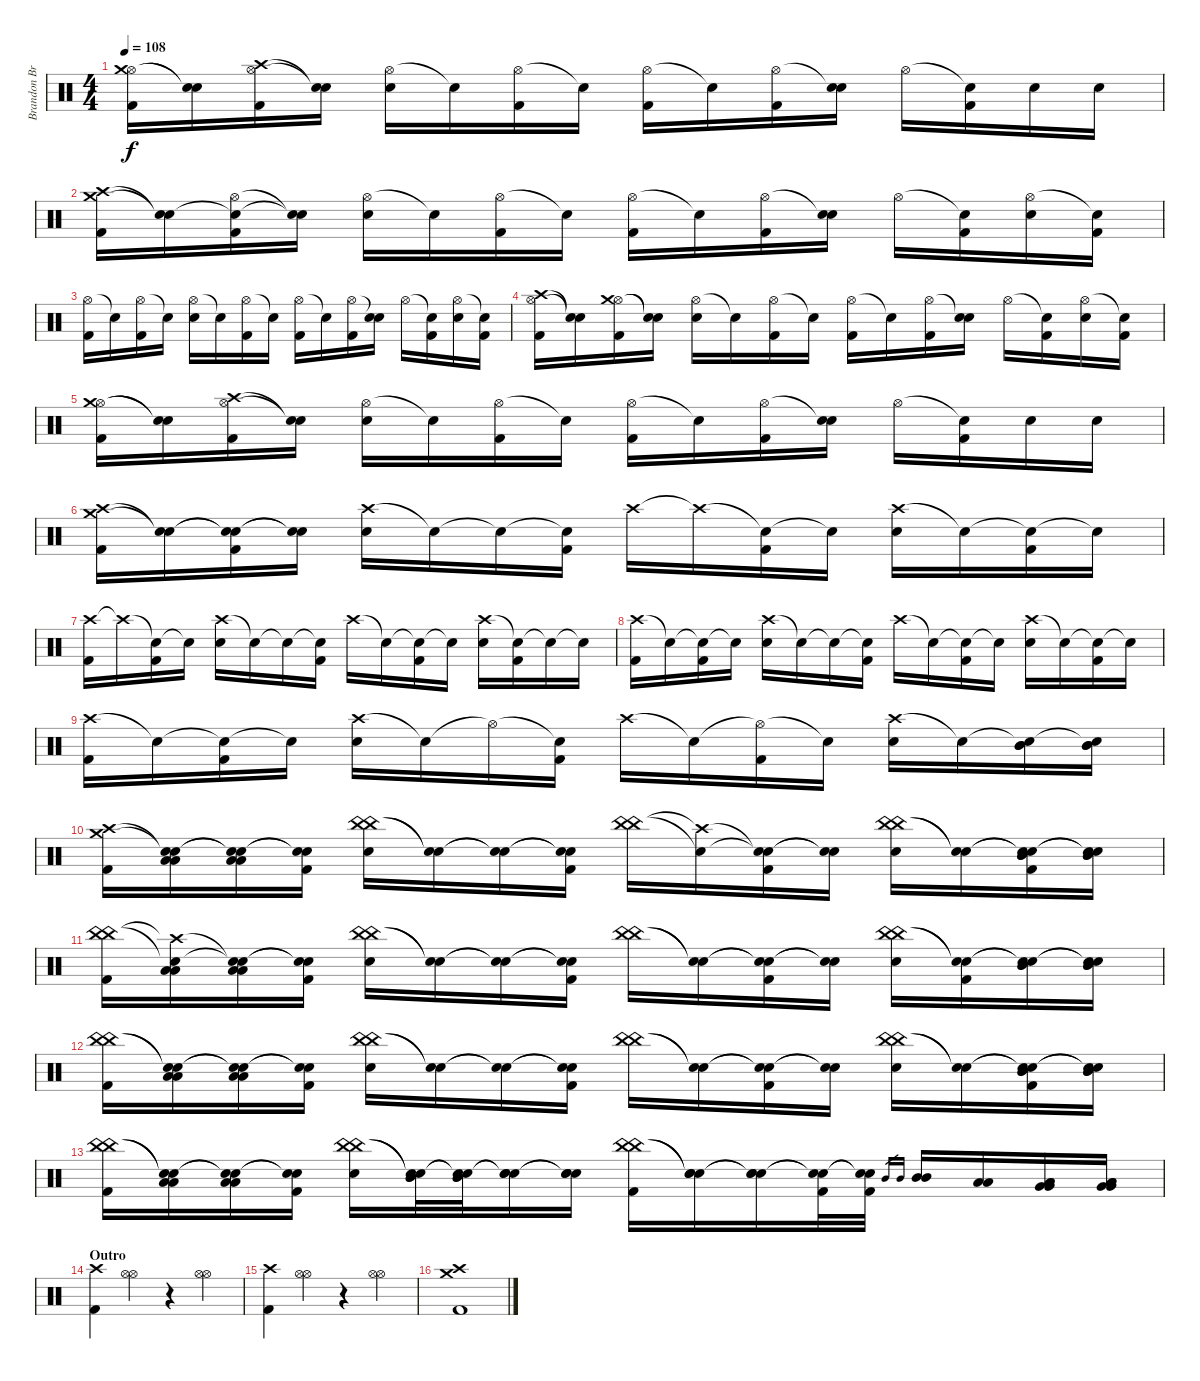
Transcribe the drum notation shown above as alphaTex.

\track ("Brandon Brown (Drums)" "Brandon Br") {instrument percussion}
\staff {score}
\articulation defaults
\ts (4 4)
\tempo 108
\clef neutral
\ks c
("Hi-Hat (open)" "Crash medium (hit)" "Kick (hit) 2").16{dy f} ("Snare (hit)"{t} "Snare (hit)"{t}).16 ("Hi-Hat (open)" "Crash high (hit)" "Kick (hit) 2").16 ("Snare (hit)"{t} "Snare (hit)"{t}).16 ("Hi-Hat (open)" "Electric Snare (hit)").16 "Snare (hit)"{t}.16 ("Hi-Hat (open)" "Kick (hit) 2").16 "Snare (hit)"{t}.16 ("Hi-Hat (open)" "Kick (hit) 2").16 "Snare (hit)"{t}.16 ("Hi-Hat (open)" "Kick (hit) 2").16 ("Snare (hit)"{t} "Electric Snare (hit)").16 "Hi-Hat (open)".16 ("Snare (hit)"{t} "Kick (hit) 2").16 "Electric Snare (hit)".16 "Electric Snare (hit)".16 |
("Crash medium (hit)" "Crash high (hit)" "Kick (hit) 2").16 ("Snare (hit)"{t} "Snare (hit)"{t}).16 ("Hi-Hat (open)" "Snare (hit)"{t} "Kick (hit) 2").16 ("Snare (hit)"{t} "Snare (hit)"{t}).16 ("Hi-Hat (open)" "Electric Snare (hit)").16 "Snare (hit)"{t}.16 ("Hi-Hat (open)" "Kick (hit) 2").16 "Snare (hit)"{t}.16 ("Hi-Hat (open)" "Kick (hit) 2").16 "Snare (hit)"{t}.16 ("Hi-Hat (open)" "Kick (hit) 2").16 ("Snare (hit)"{t} "Electric Snare (hit)").16 "Hi-Hat (open)".16 ("Snare (hit)"{t} "Kick (hit) 2").16 ("Hi-Hat (open)" "Electric Snare (hit)").16 ("Snare (hit)"{t} "Kick (hit) 2").16 |
("Hi-Hat (open)" "Kick (hit) 2").16 "Snare (hit)"{t}.16 ("Hi-Hat (open)" "Kick (hit) 2").16 "Snare (hit)"{t}.16 ("Hi-Hat (open)" "Electric Snare (hit)").16 "Snare (hit)"{t}.16 ("Hi-Hat (open)" "Kick (hit) 2").16 "Snare (hit)"{t}.16 ("Hi-Hat (open)" "Kick (hit) 2").16 "Snare (hit)"{t}.16 ("Hi-Hat (open)" "Kick (hit) 2").16 ("Snare (hit)"{t} "Electric Snare (hit)").16 "Hi-Hat (open)".16 ("Snare (hit)"{t} "Kick (hit) 2").16 ("Hi-Hat (open)" "Electric Snare (hit)").16 ("Snare (hit)"{t} "Kick (hit) 2").16 |
("Hi-Hat (open)" "Crash high (hit)" "Kick (hit) 2").16 ("Snare (hit)"{t} "Snare (hit)"{t}).16 ("Hi-Hat (open)" "Crash medium (hit)" "Kick (hit) 2").16 ("Snare (hit)"{t} "Snare (hit)"{t}).16 ("Hi-Hat (open)" "Electric Snare (hit)").16 "Snare (hit)"{t}.16 ("Hi-Hat (open)" "Kick (hit) 2").16 "Snare (hit)"{t}.16 ("Hi-Hat (open)" "Kick (hit) 2").16 "Snare (hit)"{t}.16 ("Hi-Hat (open)" "Kick (hit) 2").16 ("Snare (hit)"{t} "Electric Snare (hit)").16 "Hi-Hat (open)".16 ("Snare (hit)"{t} "Kick (hit) 2").16 ("Hi-Hat (open)" "Electric Snare (hit)").16 ("Snare (hit)"{t} "Kick (hit) 2").16 |
("Hi-Hat (open)" "Crash medium (hit)" "Kick (hit) 2").16 ("Snare (hit)"{t} "Snare (hit)"{t}).16 ("Hi-Hat (open)" "Crash high (hit)" "Kick (hit) 2").16 ("Snare (hit)"{t} "Snare (hit)"{t}).16 ("Hi-Hat (open)" "Electric Snare (hit)").16 "Snare (hit)"{t}.16 ("Hi-Hat (open)" "Kick (hit) 2").16 "Snare (hit)"{t}.16 ("Hi-Hat (open)" "Kick (hit) 2").16 "Snare (hit)"{t}.16 ("Hi-Hat (open)" "Kick (hit) 2").16 ("Snare (hit)"{t} "Electric Snare (hit)").16 "Hi-Hat (open)".16 ("Snare (hit)"{t} "Kick (hit) 2").16 "Electric Snare (hit)".16 "Electric Snare (hit)".16 |
("Crash medium (hit)" "Crash high (hit)" "Kick (hit) 2").16 ("Snare (hit)"{t} "Snare (hit)"{t}).16 ("Snare (hit)"{t} "Snare (hit)"{t} "Kick (hit) 2").16 ("Snare (hit)"{t} "Snare (hit)"{t}).16 ("Crash high (hit)" "Electric Snare (hit)").16 "Snare (hit)"{t}.16 "Snare (hit)"{t}.16 ("Snare (hit)"{t} "Kick (hit) 2").16 "Crash high (hit)".16 "Crash high (hit)"{t}.16 ("Snare (hit)"{t} "Kick (hit) 2").16 "Snare (hit)"{t}.16 ("Crash high (hit)" "Electric Snare (hit)").16 "Snare (hit)"{t}.16 ("Snare (hit)"{t} "Kick (hit) 2").16 "Snare (hit)"{t}.16 |
("Crash high (hit)" "Kick (hit) 2").16 "Crash high (hit)"{t}.16 ("Snare (hit)"{t} "Kick (hit) 2").16 "Snare (hit)"{t}.16 ("Crash high (hit)" "Electric Snare (hit)").16 "Snare (hit)"{t}.16 "Snare (hit)"{t}.16 ("Snare (hit)"{t} "Kick (hit) 2").16 "Crash high (hit)".16 "Snare (hit)"{t}.16 ("Snare (hit)"{t} "Kick (hit) 2").16 "Snare (hit)"{t}.16 ("Crash high (hit)" "Electric Snare (hit)").16 ("Snare (hit)"{t} "Kick (hit) 2").16 "Snare (hit)"{t}.16 "Snare (hit)"{t}.16 |
("Crash high (hit)" "Kick (hit) 2").16 "Snare (hit)"{t}.16 ("Snare (hit)"{t} "Kick (hit) 2").16 "Snare (hit)"{t}.16 ("Crash high (hit)" "Electric Snare (hit)").16 "Snare (hit)"{t}.16 "Snare (hit)"{t}.16 ("Snare (hit)"{t} "Kick (hit) 2").16 "Crash high (hit)".16 "Snare (hit)"{t}.16 ("Snare (hit)"{t} "Kick (hit) 2").16 "Snare (hit)"{t}.16 ("Crash high (hit)" "Electric Snare (hit)").16 "Snare (hit)"{t}.16 ("Snare (hit)"{t} "Kick (hit) 2").16 "Snare (hit)"{t}.16 |
("Crash high (hit)" "Kick (hit) 2").16 "Snare (hit)"{t}.16 ("Snare (hit)"{t} "Kick (hit) 2").16 "Snare (hit)"{t}.16 ("Crash high (hit)" "Electric Snare (hit)").16 "Snare (hit)"{t}.16 "Hi-Hat (open)"{t}.16 ("Snare (hit)"{t} "Kick (hit) 2").16 "Crash high (hit)".16 "Snare (hit)"{t}.16 ("Hi-Hat (open)"{t} "Kick (hit) 2").16 "Snare (hit)"{t}.16 ("Crash high (hit)" "Electric Snare (hit)").16 "Snare (hit)"{t}.16 ("Snare (hit)"{t} "Mid Tom (hit)" "Mid Tom (hit)").16 ("Snare (hit)"{t} "Mid Tom (hit)" "Mid Tom (hit)").16 |
("Crash medium (hit)" "Crash high (hit)" "Kick (hit) 2").16 ("Snare (hit)"{t} "Snare (hit)"{t} "Low Tom (hit)" "Low Tom (hit)").16 ("Snare (hit)"{t} "Snare (hit)"{t} "Low Tom (hit)" "Low Tom (hit)").16 ("Snare (hit)"{t} "Snare (hit)"{t} "Kick (hit) 2").16 ("China (hit)" "China (hit)" "Electric Snare (hit)").16 ("Snare (hit)"{t} "Snare (hit)"{t}).16 ("Snare (hit)"{t} "Snare (hit)"{t}).16 ("Snare (hit)"{t} "Snare (hit)"{t} "Kick (hit) 2").16 ("China (hit)" "China (hit)").16 ("Crash high (hit)"{t} "Snare (hit)"{t}).16 ("Snare (hit)"{t} "Snare (hit)"{t} "Kick (hit) 2").16 ("Snare (hit)"{t} "Snare (hit)"{t}).16 ("China (hit)" "China (hit)" "Electric Snare (hit)").16 ("Snare (hit)"{t} "Snare (hit)"{t}).16 ("Snare (hit)"{t} "Snare (hit)"{t} "Mid Tom (hit)" "Mid Tom (hit)" "Kick (hit) 2").16 ("Snare (hit)"{t} "Snare (hit)"{t} "Mid Tom (hit)" "Mid Tom (hit)").16 |
("China (hit)" "China (hit)" "Kick (hit) 2").16 ("Crash high (hit)"{t} "Snare (hit)"{t} "Low Tom (hit)" "Low Tom (hit)").16 ("Snare (hit)"{t} "Snare (hit)"{t} "Low Tom (hit)" "Low Tom (hit)").16 ("Snare (hit)"{t} "Snare (hit)"{t} "Kick (hit) 2").16 ("China (hit)" "China (hit)" "Electric Snare (hit)").16 ("Snare (hit)"{t} "Snare (hit)"{t}).16 ("Snare (hit)"{t} "Snare (hit)"{t}).16 ("Snare (hit)"{t} "Snare (hit)"{t} "Kick (hit) 2").16 ("China (hit)" "China (hit)").16 ("Snare (hit)"{t} "Snare (hit)"{t}).16 ("Snare (hit)"{t} "Snare (hit)"{t} "Kick (hit) 2").16 ("Snare (hit)"{t} "Snare (hit)"{t}).16 ("China (hit)" "China (hit)" "Electric Snare (hit)").16 ("Snare (hit)"{t} "Snare (hit)"{t} "Kick (hit) 2").16 ("Snare (hit)"{t} "Snare (hit)"{t} "Mid Tom (hit)" "Mid Tom (hit)").16 ("Snare (hit)"{t} "Snare (hit)"{t} "Mid Tom (hit)" "Mid Tom (hit)").16 |
("China (hit)" "China (hit)" "Kick (hit) 2").16 ("Snare (hit)"{t} "Snare (hit)"{t} "Low Tom (hit)" "Low Tom (hit)").16 ("Snare (hit)"{t} "Snare (hit)"{t} "Low Tom (hit)" "Low Tom (hit)").16 ("Snare (hit)"{t} "Snare (hit)"{t} "Kick (hit) 2").16 ("China (hit)" "China (hit)" "Electric Snare (hit)").16 ("Snare (hit)"{t} "Snare (hit)"{t}).16 ("Snare (hit)"{t} "Snare (hit)"{t}).16 ("Snare (hit)"{t} "Snare (hit)"{t} "Kick (hit) 2").16 ("China (hit)" "China (hit)").16 ("Snare (hit)"{t} "Snare (hit)"{t}).16 ("Snare (hit)"{t} "Snare (hit)"{t} "Kick (hit) 2").16 ("Snare (hit)"{t} "Snare (hit)"{t}).16 ("China (hit)" "China (hit)" "Electric Snare (hit)").16 ("Snare (hit)"{t} "Snare (hit)"{t}).16 ("Snare (hit)"{t} "Snare (hit)"{t} "Mid Tom (hit)" "Mid Tom (hit)" "Kick (hit) 2").16 ("Snare (hit)"{t} "Snare (hit)"{t} "Mid Tom (hit)" "Mid Tom (hit)").16 |
("China (hit)" "China (hit)" "Kick (hit) 2").16 ("Snare (hit)"{t} "Snare (hit)"{t} "Low Tom (hit)" "Low Tom (hit)").16 ("Snare (hit)"{t} "Snare (hit)"{t} "Low Tom (hit)" "Low Tom (hit)").16 ("Snare (hit)"{t} "Snare (hit)"{t} "Kick (hit) 2").16 ("China (hit)" "China (hit)" "Electric Snare (hit)").16 ("Snare (hit)"{t} "Snare (hit)"{t} "Mid Tom (hit)" "Mid Tom (hit)").32 ("Snare (hit)"{t} "Snare (hit)"{t} "Mid Tom (hit)" "Mid Tom (hit)").32 ("Snare (hit)"{t} "Snare (hit)"{t} "Electric Snare (hit)").16 ("Snare (hit)"{t} "Snare (hit)"{t} "Electric Snare (hit)").16 ("China (hit)" "China (hit)" "Kick (hit) 2").16 ("Snare (hit)"{t} "Snare (hit)"{t} "Electric Snare (hit)").16 ("Snare (hit)"{t} "Snare (hit)"{t} "Electric Snare (hit)").16 ("Snare (hit)"{t} "Snare (hit)"{t} "Kick (hit) 2").32 ("Snare (hit)"{t} "Snare (hit)"{t} "Kick (hit) 2").32 "Mid Tom (hit)".16{gr} "Mid Tom (hit)".16{gr} ("Mid Tom (hit)" "Mid Tom (hit)").16 ("Low Tom (hit)" "Low Tom (hit)").16 ("Very Low Tom (hit)" "Very Low Tom (hit)" "Low Floor Tom (hit)" "Low Floor Tom (hit)").16 ("Very Low Tom (hit)" "Very Low Tom (hit)" "Low Floor Tom (hit)" "Low Floor Tom (hit)").16 |
\section ("" "Outro")
("Crash high (hit)" "Kick (hit) 2").4 ("Hi-Hat (open)" "Hi-Hat (open)").4 r.4 ("Hi-Hat (open)" "Hi-Hat (open)").4 |
("Crash high (hit)" "Kick (hit) 2").4 ("Hi-Hat (open)" "Hi-Hat (open)").4 r.4 ("Hi-Hat (open)" "Hi-Hat (open)").4 |
("Crash high (hit)" "Crash medium (hit)" "Kick (hit) 2").1
